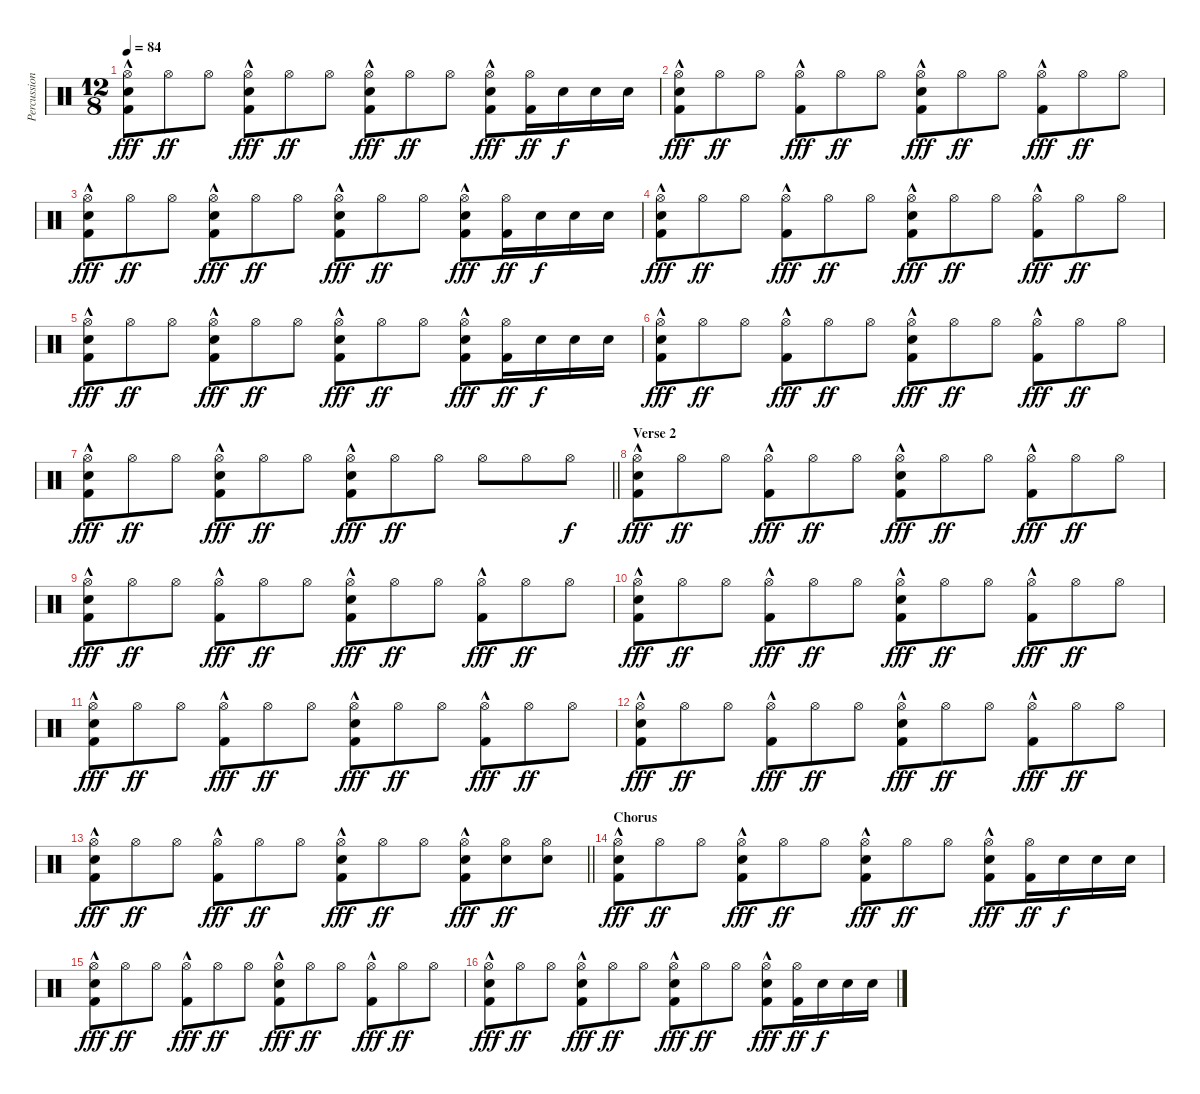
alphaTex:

\track ("Percussion" "Percussion") {instrument percussion}
\staff {score}
\articulation defaults
\ts (12 8)
\tempo 84
\clef neutral
\ks c
("Electric Snare (hit)" "Hi-Hat (open)" "Kick (hit) 2"{hac}).8{dy fff} "Hi-Hat (open)".8{dy ff} "Hi-Hat (open)".8 ("Electric Snare (hit)" "Hi-Hat (open)" "Kick (hit) 2"{hac}).8{dy fff} "Hi-Hat (open)".8{dy ff} "Hi-Hat (open)".8 ("Electric Snare (hit)" "Hi-Hat (open)" "Kick (hit) 2"{hac}).8{dy fff} "Hi-Hat (open)".8{dy ff} "Hi-Hat (open)".8 ("Electric Snare (hit)" "Hi-Hat (open)" "Kick (hit) 2"{hac}).8{dy fff} ("Hi-Hat (open)" "Kick (hit) 2").16{dy ff} "Electric Snare (hit)".16{dy f} "Electric Snare (hit)".16 "Electric Snare (hit)".16 |
("Electric Snare (hit)" "Hi-Hat (open)" "Kick (hit) 2"{hac}).8{dy fff} "Hi-Hat (open)".8{dy ff} "Hi-Hat (open)".8 ("Hi-Hat (open)" "Kick (hit) 2"{hac}).8{dy fff} "Hi-Hat (open)".8{dy ff} "Hi-Hat (open)".8 ("Electric Snare (hit)" "Hi-Hat (open)" "Kick (hit) 2"{hac}).8{dy fff} "Hi-Hat (open)".8{dy ff} "Hi-Hat (open)".8 ("Hi-Hat (open)" "Kick (hit) 2"{hac}).8{dy fff} "Hi-Hat (open)".8{dy ff} "Hi-Hat (open)".8 |
("Electric Snare (hit)" "Hi-Hat (open)" "Kick (hit) 2"{hac}).8{dy fff} "Hi-Hat (open)".8{dy ff} "Hi-Hat (open)".8 ("Electric Snare (hit)" "Hi-Hat (open)" "Kick (hit) 2"{hac}).8{dy fff} "Hi-Hat (open)".8{dy ff} "Hi-Hat (open)".8 ("Electric Snare (hit)" "Hi-Hat (open)" "Kick (hit) 2"{hac}).8{dy fff} "Hi-Hat (open)".8{dy ff} "Hi-Hat (open)".8 ("Electric Snare (hit)" "Hi-Hat (open)" "Kick (hit) 2"{hac}).8{dy fff} ("Hi-Hat (open)" "Kick (hit) 2").16{dy ff} "Electric Snare (hit)".16{dy f} "Electric Snare (hit)".16 "Electric Snare (hit)".16 |
("Electric Snare (hit)" "Hi-Hat (open)" "Kick (hit) 2"{hac}).8{dy fff} "Hi-Hat (open)".8{dy ff} "Hi-Hat (open)".8 ("Hi-Hat (open)" "Kick (hit) 2"{hac}).8{dy fff} "Hi-Hat (open)".8{dy ff} "Hi-Hat (open)".8 ("Electric Snare (hit)" "Hi-Hat (open)" "Kick (hit) 2"{hac}).8{dy fff} "Hi-Hat (open)".8{dy ff} "Hi-Hat (open)".8 ("Hi-Hat (open)" "Kick (hit) 2"{hac}).8{dy fff} "Hi-Hat (open)".8{dy ff} "Hi-Hat (open)".8 |
("Electric Snare (hit)" "Hi-Hat (open)" "Kick (hit) 2"{hac}).8{dy fff} "Hi-Hat (open)".8{dy ff} "Hi-Hat (open)".8 ("Electric Snare (hit)" "Hi-Hat (open)" "Kick (hit) 2"{hac}).8{dy fff} "Hi-Hat (open)".8{dy ff} "Hi-Hat (open)".8 ("Electric Snare (hit)" "Hi-Hat (open)" "Kick (hit) 2"{hac}).8{dy fff} "Hi-Hat (open)".8{dy ff} "Hi-Hat (open)".8 ("Electric Snare (hit)" "Hi-Hat (open)" "Kick (hit) 2"{hac}).8{dy fff} ("Hi-Hat (open)" "Kick (hit) 2").16{dy ff} "Electric Snare (hit)".16{dy f} "Electric Snare (hit)".16 "Electric Snare (hit)".16 |
("Electric Snare (hit)" "Hi-Hat (open)" "Kick (hit) 2"{hac}).8{dy fff} "Hi-Hat (open)".8{dy ff} "Hi-Hat (open)".8 ("Hi-Hat (open)" "Kick (hit) 2"{hac}).8{dy fff} "Hi-Hat (open)".8{dy ff} "Hi-Hat (open)".8 ("Electric Snare (hit)" "Hi-Hat (open)" "Kick (hit) 2"{hac}).8{dy fff} "Hi-Hat (open)".8{dy ff} "Hi-Hat (open)".8 ("Hi-Hat (open)" "Kick (hit) 2"{hac}).8{dy fff} "Hi-Hat (open)".8{dy ff} "Hi-Hat (open)".8 |
\barLineRight lightlight
("Electric Snare (hit)" "Hi-Hat (open)" "Kick (hit) 2"{hac}).8{dy fff} "Hi-Hat (open)".8{dy ff} "Hi-Hat (open)".8 ("Electric Snare (hit)" "Hi-Hat (open)" "Kick (hit) 2"{hac}).8{dy fff} "Hi-Hat (open)".8{dy ff} "Hi-Hat (open)".8 ("Electric Snare (hit)" "Hi-Hat (open)" "Kick (hit) 2"{hac}).8{dy fff} "Hi-Hat (open)".8{dy ff} "Hi-Hat (open)".8 "Hi-Hat (open)".8 "Hi-Hat (open)".8 "Hi-Hat (open)".8{dy f} |
\section ("" "Verse 2")
("Electric Snare (hit)" "Hi-Hat (open)" "Kick (hit) 2"{hac}).8{dy fff} "Hi-Hat (open)".8{dy ff} "Hi-Hat (open)".8 ("Hi-Hat (open)" "Kick (hit) 2"{hac}).8{dy fff} "Hi-Hat (open)".8{dy ff} "Hi-Hat (open)".8 ("Electric Snare (hit)" "Hi-Hat (open)" "Kick (hit) 2"{hac}).8{dy fff} "Hi-Hat (open)".8{dy ff} "Hi-Hat (open)".8 ("Hi-Hat (open)" "Kick (hit) 2"{hac}).8{dy fff} "Hi-Hat (open)".8{dy ff} "Hi-Hat (open)".8 |
("Electric Snare (hit)" "Hi-Hat (open)" "Kick (hit) 2"{hac}).8{dy fff} "Hi-Hat (open)".8{dy ff} "Hi-Hat (open)".8 ("Hi-Hat (open)" "Kick (hit) 2"{hac}).8{dy fff} "Hi-Hat (open)".8{dy ff} "Hi-Hat (open)".8 ("Electric Snare (hit)" "Hi-Hat (open)" "Kick (hit) 2"{hac}).8{dy fff} "Hi-Hat (open)".8{dy ff} "Hi-Hat (open)".8 ("Hi-Hat (open)" "Kick (hit) 2"{hac}).8{dy fff} "Hi-Hat (open)".8{dy ff} "Hi-Hat (open)".8 |
("Electric Snare (hit)" "Hi-Hat (open)" "Kick (hit) 2"{hac}).8{dy fff} "Hi-Hat (open)".8{dy ff} "Hi-Hat (open)".8 ("Hi-Hat (open)" "Kick (hit) 2"{hac}).8{dy fff} "Hi-Hat (open)".8{dy ff} "Hi-Hat (open)".8 ("Electric Snare (hit)" "Hi-Hat (open)" "Kick (hit) 2"{hac}).8{dy fff} "Hi-Hat (open)".8{dy ff} "Hi-Hat (open)".8 ("Hi-Hat (open)" "Kick (hit) 2"{hac}).8{dy fff} "Hi-Hat (open)".8{dy ff} "Hi-Hat (open)".8 |
("Electric Snare (hit)" "Hi-Hat (open)" "Kick (hit) 2"{hac}).8{dy fff} "Hi-Hat (open)".8{dy ff} "Hi-Hat (open)".8 ("Hi-Hat (open)" "Kick (hit) 2"{hac}).8{dy fff} "Hi-Hat (open)".8{dy ff} "Hi-Hat (open)".8 ("Electric Snare (hit)" "Hi-Hat (open)" "Kick (hit) 2"{hac}).8{dy fff} "Hi-Hat (open)".8{dy ff} "Hi-Hat (open)".8 ("Hi-Hat (open)" "Kick (hit) 2"{hac}).8{dy fff} "Hi-Hat (open)".8{dy ff} "Hi-Hat (open)".8 |
("Electric Snare (hit)" "Hi-Hat (open)" "Kick (hit) 2"{hac}).8{dy fff} "Hi-Hat (open)".8{dy ff} "Hi-Hat (open)".8 ("Hi-Hat (open)" "Kick (hit) 2"{hac}).8{dy fff} "Hi-Hat (open)".8{dy ff} "Hi-Hat (open)".8 ("Electric Snare (hit)" "Hi-Hat (open)" "Kick (hit) 2"{hac}).8{dy fff} "Hi-Hat (open)".8{dy ff} "Hi-Hat (open)".8 ("Hi-Hat (open)" "Kick (hit) 2"{hac}).8{dy fff} "Hi-Hat (open)".8{dy ff} "Hi-Hat (open)".8 |
\barLineRight lightlight
("Electric Snare (hit)" "Hi-Hat (open)" "Kick (hit) 2"{hac}).8{dy fff} "Hi-Hat (open)".8{dy ff} "Hi-Hat (open)".8 ("Hi-Hat (open)" "Kick (hit) 2"{hac}).8{dy fff} "Hi-Hat (open)".8{dy ff} "Hi-Hat (open)".8 ("Electric Snare (hit)" "Hi-Hat (open)" "Kick (hit) 2"{hac}).8{dy fff} "Hi-Hat (open)".8{dy ff} "Hi-Hat (open)".8 ("Electric Snare (hit)" "Hi-Hat (open)" "Kick (hit) 2"{hac}).8{dy fff} ("Electric Snare (hit)" "Hi-Hat (open)").8{dy ff} ("Electric Snare (hit)" "Hi-Hat (open)").8 |
\section ("" "Chorus")
("Electric Snare (hit)" "Hi-Hat (open)" "Kick (hit) 2"{hac}).8{dy fff} "Hi-Hat (open)".8{dy ff} "Hi-Hat (open)".8 ("Electric Snare (hit)" "Hi-Hat (open)" "Kick (hit) 2"{hac}).8{dy fff} "Hi-Hat (open)".8{dy ff} "Hi-Hat (open)".8 ("Electric Snare (hit)" "Hi-Hat (open)" "Kick (hit) 2"{hac}).8{dy fff} "Hi-Hat (open)".8{dy ff} "Hi-Hat (open)".8 ("Electric Snare (hit)" "Hi-Hat (open)" "Kick (hit) 2"{hac}).8{dy fff} ("Hi-Hat (open)" "Kick (hit) 2").16{dy ff} "Electric Snare (hit)".16{dy f} "Electric Snare (hit)".16 "Electric Snare (hit)".16 |
("Electric Snare (hit)" "Hi-Hat (open)" "Kick (hit) 2"{hac}).8{dy fff} "Hi-Hat (open)".8{dy ff} "Hi-Hat (open)".8 ("Hi-Hat (open)" "Kick (hit) 2"{hac}).8{dy fff} "Hi-Hat (open)".8{dy ff} "Hi-Hat (open)".8 ("Electric Snare (hit)" "Hi-Hat (open)" "Kick (hit) 2"{hac}).8{dy fff} "Hi-Hat (open)".8{dy ff} "Hi-Hat (open)".8 ("Hi-Hat (open)" "Kick (hit) 2"{hac}).8{dy fff} "Hi-Hat (open)".8{dy ff} "Hi-Hat (open)".8 |
("Electric Snare (hit)" "Hi-Hat (open)" "Kick (hit) 2"{hac}).8{dy fff} "Hi-Hat (open)".8{dy ff} "Hi-Hat (open)".8 ("Electric Snare (hit)" "Hi-Hat (open)" "Kick (hit) 2"{hac}).8{dy fff} "Hi-Hat (open)".8{dy ff} "Hi-Hat (open)".8 ("Electric Snare (hit)" "Hi-Hat (open)" "Kick (hit) 2"{hac}).8{dy fff} "Hi-Hat (open)".8{dy ff} "Hi-Hat (open)".8 ("Electric Snare (hit)" "Hi-Hat (open)" "Kick (hit) 2"{hac}).8{dy fff} ("Hi-Hat (open)" "Kick (hit) 2").16{dy ff} "Electric Snare (hit)".16{dy f} "Electric Snare (hit)".16 "Electric Snare (hit)".16
